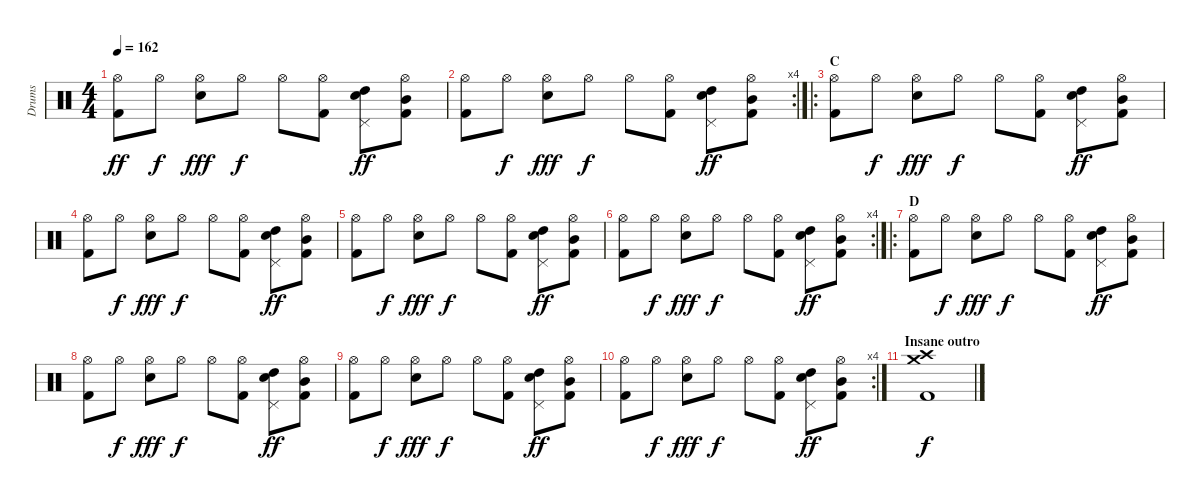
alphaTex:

\track ("Drums" "Drums") {instrument percussion}
\staff {score}
\articulation defaults
\ts (4 4)
\tempo 162
\clef neutral
\ks c
("Hi-Hat (open)" "Kick (hit) 2").8{dy ff} "Hi-Hat (open)".8{dy f} ("Hi-Hat (open)" "Electric Snare (hit)").8{dy fff} "Hi-Hat (open)".8{dy f} "Hi-Hat (open)".8 ("Hi-Hat (open)" "Kick (hit) 2").8 ("Pedal Hi-Hat (hit)" "High Tom (hit)" "Electric Snare (hit)").8{dy ff} ("Hi-Hat (open)" "Mid Tom (hit)" "Kick (hit) 2").8 |
\rc 4
("Hi-Hat (open)" "Kick (hit) 2").8 "Hi-Hat (open)".8{dy f} ("Hi-Hat (open)" "Electric Snare (hit)").8{dy fff} "Hi-Hat (open)".8{dy f} "Hi-Hat (open)".8 ("Hi-Hat (open)" "Kick (hit) 2").8 ("Pedal Hi-Hat (hit)" "High Tom (hit)" "Electric Snare (hit)").8{dy ff} ("Hi-Hat (open)" "Mid Tom (hit)" "Kick (hit) 2").8 |
\ro
\section ("" "C")
("Hi-Hat (open)" "Kick (hit) 2").8 "Hi-Hat (open)".8{dy f} ("Hi-Hat (open)" "Electric Snare (hit)").8{dy fff} "Hi-Hat (open)".8{dy f} "Hi-Hat (open)".8 ("Hi-Hat (open)" "Kick (hit) 2").8 ("Pedal Hi-Hat (hit)" "High Tom (hit)" "Electric Snare (hit)").8{dy ff} ("Hi-Hat (open)" "Mid Tom (hit)" "Kick (hit) 2").8 |
("Hi-Hat (open)" "Kick (hit) 2").8 "Hi-Hat (open)".8{dy f} ("Hi-Hat (open)" "Electric Snare (hit)").8{dy fff} "Hi-Hat (open)".8{dy f} "Hi-Hat (open)".8 ("Hi-Hat (open)" "Kick (hit) 2").8 ("Pedal Hi-Hat (hit)" "High Tom (hit)" "Electric Snare (hit)").8{dy ff} ("Hi-Hat (open)" "Mid Tom (hit)" "Kick (hit) 2").8 |
("Hi-Hat (open)" "Kick (hit) 2").8 "Hi-Hat (open)".8{dy f} ("Hi-Hat (open)" "Electric Snare (hit)").8{dy fff} "Hi-Hat (open)".8{dy f} "Hi-Hat (open)".8 ("Hi-Hat (open)" "Kick (hit) 2").8 ("Pedal Hi-Hat (hit)" "High Tom (hit)" "Electric Snare (hit)").8{dy ff} ("Hi-Hat (open)" "Mid Tom (hit)" "Kick (hit) 2").8 |
\rc 4
("Hi-Hat (open)" "Kick (hit) 2").8 "Hi-Hat (open)".8{dy f} ("Hi-Hat (open)" "Electric Snare (hit)").8{dy fff} "Hi-Hat (open)".8{dy f} "Hi-Hat (open)".8 ("Hi-Hat (open)" "Kick (hit) 2").8 ("Pedal Hi-Hat (hit)" "High Tom (hit)" "Electric Snare (hit)").8{dy ff} ("Hi-Hat (open)" "Mid Tom (hit)" "Kick (hit) 2").8 |
\ro
\section ("" "D")
("Hi-Hat (open)" "Kick (hit) 2").8 "Hi-Hat (open)".8{dy f} ("Hi-Hat (open)" "Electric Snare (hit)").8{dy fff} "Hi-Hat (open)".8{dy f} "Hi-Hat (open)".8 ("Hi-Hat (open)" "Kick (hit) 2").8 ("Pedal Hi-Hat (hit)" "High Tom (hit)" "Electric Snare (hit)").8{dy ff} ("Hi-Hat (open)" "Mid Tom (hit)" "Kick (hit) 2").8 |
("Hi-Hat (open)" "Kick (hit) 2").8 "Hi-Hat (open)".8{dy f} ("Hi-Hat (open)" "Electric Snare (hit)").8{dy fff} "Hi-Hat (open)".8{dy f} "Hi-Hat (open)".8 ("Hi-Hat (open)" "Kick (hit) 2").8 ("Pedal Hi-Hat (hit)" "High Tom (hit)" "Electric Snare (hit)").8{dy ff} ("Hi-Hat (open)" "Mid Tom (hit)" "Kick (hit) 2").8 |
("Hi-Hat (open)" "Kick (hit) 2").8 "Hi-Hat (open)".8{dy f} ("Hi-Hat (open)" "Electric Snare (hit)").8{dy fff} "Hi-Hat (open)".8{dy f} "Hi-Hat (open)".8 ("Hi-Hat (open)" "Kick (hit) 2").8 ("Pedal Hi-Hat (hit)" "High Tom (hit)" "Electric Snare (hit)").8{dy ff} ("Hi-Hat (open)" "Mid Tom (hit)" "Kick (hit) 2").8 |
\rc 4
("Hi-Hat (open)" "Kick (hit) 2").8 "Hi-Hat (open)".8{dy f} ("Hi-Hat (open)" "Electric Snare (hit)").8{dy fff} "Hi-Hat (open)".8{dy f} "Hi-Hat (open)".8 ("Hi-Hat (open)" "Kick (hit) 2").8 ("Pedal Hi-Hat (hit)" "High Tom (hit)" "Electric Snare (hit)").8{dy ff} ("Hi-Hat (open)" "Mid Tom (hit)" "Kick (hit) 2").8 |
\section ("" "Insane outro")
("Crash high (hit)" "Crash medium (hit)" "Kick (hit) 2").1{dy f}
